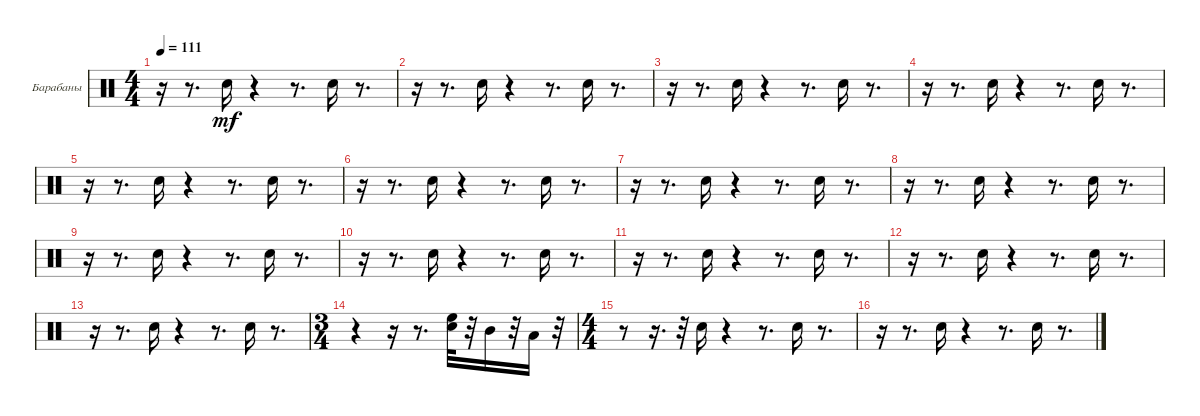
\bracketExtendMode groupsimilarinstruments
\firstSystemTrackNameOrientation horizontal
\otherSystemsTrackNameOrientation horizontal
\track ("Барабаны" "Барабаны") {instrument percussion}
\staff {score}
\articulation defaults
\ts (4 4)
\tempo 111
\clef neutral
\ks c
r.16{dy mf} r.8{d} "Snare (hit) 2".16 r.4 r.8{d} "Snare (hit) 2".16 r.8{d} |
r.16 r.8{d} "Snare (hit) 2".16 r.4 r.8{d} "Snare (hit) 2".16 r.8{d} |
r.16 r.8{d} "Snare (hit) 2".16 r.4 r.8{d} "Snare (hit) 2".16 r.8{d} |
r.16 r.8{d} "Snare (hit) 2".16 r.4 r.8{d} "Snare (hit) 2".16 r.8{d} |
r.16 r.8{d} "Snare (hit) 2".16 r.4 r.8{d} "Snare (hit) 2".16 r.8{d} |
r.16 r.8{d} "Snare (hit) 2".16 r.4 r.8{d} "Snare (hit) 2".16 r.8{d} |
r.16 r.8{d} "Snare (hit) 2".16 r.4 r.8{d} "Snare (hit) 2".16 r.8{d} |
r.16 r.8{d} "Snare (hit) 2".16 r.4 r.8{d} "Snare (hit) 2".16 r.8{d} |
r.16 r.8{d} "Snare (hit) 2".16 r.4 r.8{d} "Snare (hit) 2".16 r.8{d} |
r.16 r.8{d} "Snare (hit) 2".16 r.4 r.8{d} "Snare (hit) 2".16 r.8{d} |
r.16 r.8{d} "Snare (hit) 2".16 r.4 r.8{d} "Snare (hit) 2".16 r.8{d} |
r.16 r.8{d} "Snare (hit) 2".16 r.4 r.8{d} "Snare (hit) 2".16 r.8{d} |
r.16 r.8{d} "Snare (hit) 2".16 r.4 r.8{d} "Snare (hit) 2".16 r.8{d} |
\ts (3 4)
r.4 r.16 r.8{d} ("Snare (hit) 2" "High Floor Tom (hit)").32 r.32 "Mid Tom (hit)".16 r.32 "Low Tom (hit)".16 r.32 |
\ts (4 4)
r.8 r.16{d} r.32 "Snare (hit) 2".16 r.4 r.8{d} "Snare (hit) 2".16 r.8{d} |
r.16 r.8{d} "Snare (hit) 2".16 r.4 r.8{d} "Snare (hit) 2".16 r.8{d}
